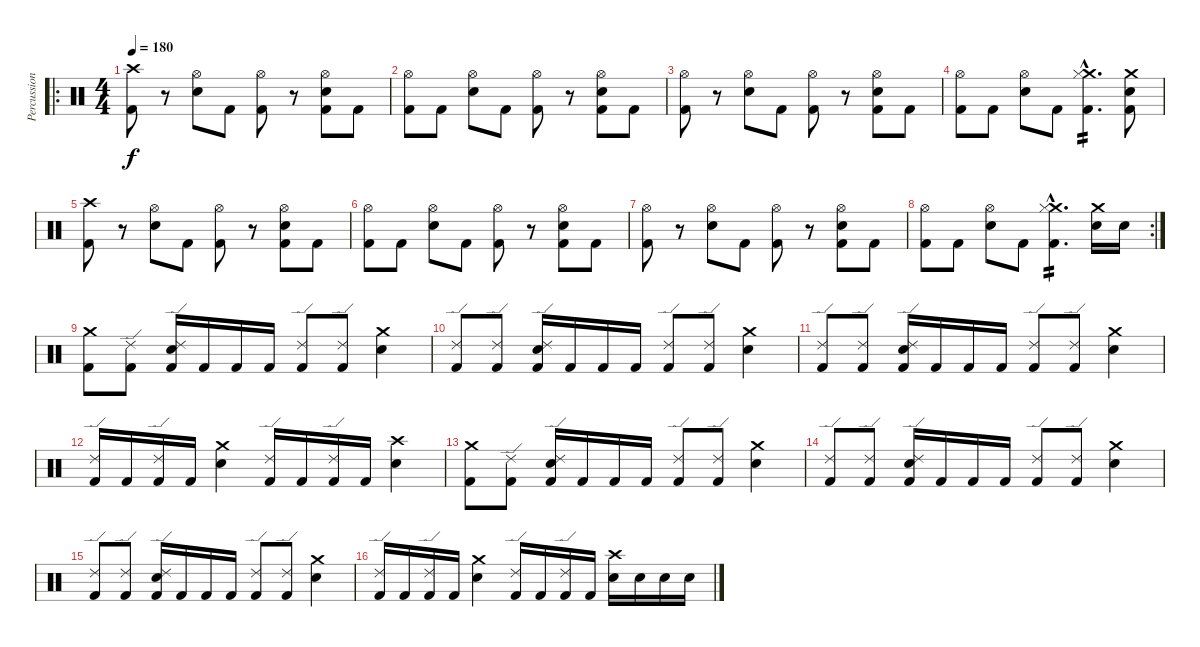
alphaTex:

\track ("Percussions" "Percussion") {instrument percussion}
\staff {score}
\articulation defaults
\ro
\ts (4 4)
\tempo 180
\clef neutral
\ks c
("Kick (hit) 2" "Crash high (hit)").8{dy f} r.8 ("Electric Snare (hit)" "Hi-Hat (open)").8 "Kick (hit) 2".8 ("Kick (hit) 2" "Hi-Hat (open)").8 r.8 ("Kick (hit) 2" "Electric Snare (hit)" "Hi-Hat (open)").8 "Kick (hit) 2".8 |
("Kick (hit) 2" "Hi-Hat (open)").8 "Kick (hit) 2".8 ("Electric Snare (hit)" "Hi-Hat (open)").8 "Kick (hit) 2".8 ("Kick (hit) 2" "Hi-Hat (open)").8 r.8 ("Kick (hit) 2" "Electric Snare (hit)" "Hi-Hat (open)").8 "Kick (hit) 2".8 |
("Kick (hit) 2" "Hi-Hat (open)").8 r.8 ("Electric Snare (hit)" "Hi-Hat (open)").8 "Kick (hit) 2".8 ("Kick (hit) 2" "Hi-Hat (open)").8 r.8 ("Kick (hit) 2" "Electric Snare (hit)" "Hi-Hat (open)").8 "Kick (hit) 2".8 |
("Kick (hit) 2" "Hi-Hat (open)").8 "Kick (hit) 2".8 ("Electric Snare (hit)" "Hi-Hat (open)").8 "Kick (hit) 2".8 ("Kick (hit) 2"{hac} "Crash medium (hit)"{hac} "Hi-Hat (closed)"{hac}).4{d tp 2} ("Kick (hit) 2" "Electric Snare (hit)" "Crash medium (hit)").8 |
("Kick (hit) 2" "Crash high (hit)").8 r.8 ("Electric Snare (hit)" "Hi-Hat (open)").8 "Kick (hit) 2".8 ("Kick (hit) 2" "Hi-Hat (open)").8 r.8 ("Kick (hit) 2" "Electric Snare (hit)" "Hi-Hat (open)").8 "Kick (hit) 2".8 |
("Kick (hit) 2" "Hi-Hat (open)").8 "Kick (hit) 2".8 ("Electric Snare (hit)" "Hi-Hat (open)").8 "Kick (hit) 2".8 ("Kick (hit) 2" "Hi-Hat (open)").8 r.8 ("Kick (hit) 2" "Electric Snare (hit)" "Hi-Hat (open)").8 "Kick (hit) 2".8 |
("Kick (hit) 2" "Hi-Hat (open)").8 r.8 ("Electric Snare (hit)" "Hi-Hat (open)").8 "Kick (hit) 2".8 ("Kick (hit) 2" "Hi-Hat (open)").8 r.8 ("Kick (hit) 2" "Electric Snare (hit)" "Hi-Hat (open)").8 "Kick (hit) 2".8 |
\rc 2
("Kick (hit) 2" "Hi-Hat (open)").8 "Kick (hit) 2".8 ("Electric Snare (hit)" "Hi-Hat (open)").8 "Kick (hit) 2".8 ("Kick (hit) 2"{hac} "Crash medium (hit)"{hac} "Hi-Hat (closed)"{hac}).4{d tp 2} ("Electric Snare (hit)" "Crash medium (hit)").16 "Electric Snare (hit)".16 |
("Kick (hit) 2" "Crash medium (hit)").8 ("Kick (hit) 2" "Ride (edge) 2").8 ("Kick (hit) 2" "Electric Snare (hit)" "Ride (edge) 2").16 "Kick (hit) 2".16 "Kick (hit) 2".16 "Kick (hit) 2".16 ("Kick (hit) 2" "Ride (edge) 2").8 ("Kick (hit) 2" "Ride (edge) 2").8 ("Crash medium (hit)" "Electric Snare (hit)").4 |
("Kick (hit) 2" "Ride (edge) 2").8 ("Kick (hit) 2" "Ride (edge) 2").8 ("Kick (hit) 2" "Electric Snare (hit)" "Ride (edge) 2").16 "Kick (hit) 2".16 "Kick (hit) 2".16 "Kick (hit) 2".16 ("Kick (hit) 2" "Ride (edge) 2").8 ("Kick (hit) 2" "Ride (edge) 2").8 ("Crash medium (hit)" "Electric Snare (hit)").4 |
("Kick (hit) 2" "Ride (edge) 2").8 ("Kick (hit) 2" "Ride (edge) 2").8 ("Kick (hit) 2" "Electric Snare (hit)" "Ride (edge) 2").16 "Kick (hit) 2".16 "Kick (hit) 2".16 "Kick (hit) 2".16 ("Kick (hit) 2" "Ride (edge) 2").8 ("Kick (hit) 2" "Ride (edge) 2").8 ("Crash medium (hit)" "Electric Snare (hit)").4 |
("Kick (hit) 2" "Ride (edge) 2").16 "Kick (hit) 2".16 ("Kick (hit) 2" "Ride (edge) 2").16 "Kick (hit) 2".16 ("Crash medium (hit)" "Electric Snare (hit)").4 ("Kick (hit) 2" "Ride (edge) 2").16 "Kick (hit) 2".16 ("Kick (hit) 2" "Ride (edge) 2").16 "Kick (hit) 2".16 ("Crash high (hit)" "Electric Snare (hit)").4 |
("Kick (hit) 2" "Crash medium (hit)").8 ("Kick (hit) 2" "Ride (edge) 2").8 ("Kick (hit) 2" "Electric Snare (hit)" "Ride (edge) 2").16 "Kick (hit) 2".16 "Kick (hit) 2".16 "Kick (hit) 2".16 ("Kick (hit) 2" "Ride (edge) 2").8 ("Kick (hit) 2" "Ride (edge) 2").8 ("Crash medium (hit)" "Electric Snare (hit)").4 |
("Kick (hit) 2" "Ride (edge) 2").8 ("Kick (hit) 2" "Ride (edge) 2").8 ("Kick (hit) 2" "Electric Snare (hit)" "Ride (edge) 2").16 "Kick (hit) 2".16 "Kick (hit) 2".16 "Kick (hit) 2".16 ("Kick (hit) 2" "Ride (edge) 2").8 ("Kick (hit) 2" "Ride (edge) 2").8 ("Crash medium (hit)" "Electric Snare (hit)").4 |
("Kick (hit) 2" "Ride (edge) 2").8 ("Kick (hit) 2" "Ride (edge) 2").8 ("Kick (hit) 2" "Electric Snare (hit)" "Ride (edge) 2").16 "Kick (hit) 2".16 "Kick (hit) 2".16 "Kick (hit) 2".16 ("Kick (hit) 2" "Ride (edge) 2").8 ("Kick (hit) 2" "Ride (edge) 2").8 ("Crash medium (hit)" "Electric Snare (hit)").4 |
("Kick (hit) 2" "Ride (edge) 2").16 "Kick (hit) 2".16 ("Kick (hit) 2" "Ride (edge) 2").16 "Kick (hit) 2".16 ("Crash medium (hit)" "Electric Snare (hit)").4 ("Kick (hit) 2" "Ride (edge) 2").16 "Kick (hit) 2".16 ("Kick (hit) 2" "Ride (edge) 2").16 "Kick (hit) 2".16 ("Crash high (hit)" "Snare (hit) 2").16 "Snare (hit) 2".16 "Snare (hit) 2".16 "Snare (hit) 2".16
